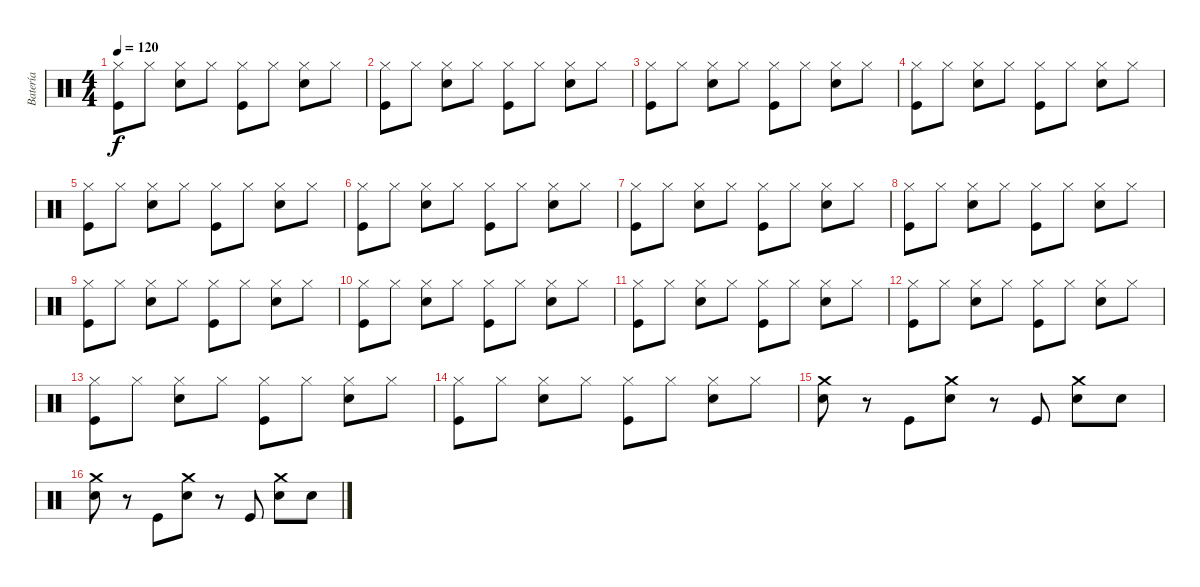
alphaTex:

\track ("Batería" "Batería") {instrument percussion}
\staff {score}
\articulation defaults
\ts (4 4)
\tempo 120
\clef neutral
\ks c
("Hi-Hat (closed)" "Kick (hit)").8{dy f} "Hi-Hat (closed)".8 ("Hi-Hat (closed)" "Snare (hit) 2").8 "Hi-Hat (closed)".8 ("Hi-Hat (closed)" "Kick (hit)").8 "Hi-Hat (closed)".8 ("Hi-Hat (closed)" "Snare (hit) 2").8 "Hi-Hat (closed)".8 |
("Hi-Hat (closed)" "Kick (hit)").8 "Hi-Hat (closed)".8 ("Hi-Hat (closed)" "Snare (hit) 2").8 "Hi-Hat (closed)".8 ("Hi-Hat (closed)" "Kick (hit)").8 "Hi-Hat (closed)".8 ("Hi-Hat (closed)" "Snare (hit) 2").8 "Hi-Hat (closed)".8 |
("Hi-Hat (closed)" "Kick (hit)").8 "Hi-Hat (closed)".8 ("Hi-Hat (closed)" "Snare (hit) 2").8 "Hi-Hat (closed)".8 ("Hi-Hat (closed)" "Kick (hit)").8 "Hi-Hat (closed)".8 ("Hi-Hat (closed)" "Snare (hit) 2").8 "Hi-Hat (closed)".8 |
("Hi-Hat (closed)" "Kick (hit)").8 "Hi-Hat (closed)".8 ("Hi-Hat (closed)" "Snare (hit) 2").8 "Hi-Hat (closed)".8 ("Hi-Hat (closed)" "Kick (hit)").8 "Hi-Hat (closed)".8 ("Hi-Hat (closed)" "Snare (hit) 2").8 "Hi-Hat (closed)".8 |
("Hi-Hat (closed)" "Kick (hit)").8 "Hi-Hat (closed)".8 ("Hi-Hat (closed)" "Snare (hit) 2").8 "Hi-Hat (closed)".8 ("Hi-Hat (closed)" "Kick (hit)").8 "Hi-Hat (closed)".8 ("Hi-Hat (closed)" "Snare (hit) 2").8 "Hi-Hat (closed)".8 |
("Hi-Hat (closed)" "Kick (hit)").8 "Hi-Hat (closed)".8 ("Hi-Hat (closed)" "Snare (hit) 2").8 "Hi-Hat (closed)".8 ("Hi-Hat (closed)" "Kick (hit)").8 "Hi-Hat (closed)".8 ("Hi-Hat (closed)" "Snare (hit) 2").8 "Hi-Hat (closed)".8 |
("Hi-Hat (closed)" "Kick (hit)").8 "Hi-Hat (closed)".8 ("Hi-Hat (closed)" "Snare (hit) 2").8 "Hi-Hat (closed)".8 ("Hi-Hat (closed)" "Kick (hit)").8 "Hi-Hat (closed)".8 ("Hi-Hat (closed)" "Snare (hit) 2").8 "Hi-Hat (closed)".8 |
("Hi-Hat (closed)" "Kick (hit)").8 "Hi-Hat (closed)".8 ("Hi-Hat (closed)" "Snare (hit) 2").8 "Hi-Hat (closed)".8 ("Hi-Hat (closed)" "Kick (hit)").8 "Hi-Hat (closed)".8 ("Hi-Hat (closed)" "Snare (hit) 2").8 "Hi-Hat (closed)".8 |
("Hi-Hat (closed)" "Kick (hit)").8 "Hi-Hat (closed)".8 ("Hi-Hat (closed)" "Snare (hit) 2").8 "Hi-Hat (closed)".8 ("Hi-Hat (closed)" "Kick (hit)").8 "Hi-Hat (closed)".8 ("Hi-Hat (closed)" "Snare (hit) 2").8 "Hi-Hat (closed)".8 |
("Hi-Hat (closed)" "Kick (hit)").8 "Hi-Hat (closed)".8 ("Hi-Hat (closed)" "Snare (hit) 2").8 "Hi-Hat (closed)".8 ("Hi-Hat (closed)" "Kick (hit)").8 "Hi-Hat (closed)".8 ("Hi-Hat (closed)" "Snare (hit) 2").8 "Hi-Hat (closed)".8 |
("Hi-Hat (closed)" "Kick (hit)").8 "Hi-Hat (closed)".8 ("Hi-Hat (closed)" "Snare (hit) 2").8 "Hi-Hat (closed)".8 ("Hi-Hat (closed)" "Kick (hit)").8 "Hi-Hat (closed)".8 ("Hi-Hat (closed)" "Snare (hit) 2").8 "Hi-Hat (closed)".8 |
("Hi-Hat (closed)" "Kick (hit)").8 "Hi-Hat (closed)".8 ("Hi-Hat (closed)" "Snare (hit) 2").8 "Hi-Hat (closed)".8 ("Hi-Hat (closed)" "Kick (hit)").8 "Hi-Hat (closed)".8 ("Hi-Hat (closed)" "Snare (hit) 2").8 "Hi-Hat (closed)".8 |
("Hi-Hat (closed)" "Kick (hit)").8 "Hi-Hat (closed)".8 ("Hi-Hat (closed)" "Snare (hit) 2").8 "Hi-Hat (closed)".8 ("Hi-Hat (closed)" "Kick (hit)").8 "Hi-Hat (closed)".8 ("Hi-Hat (closed)" "Snare (hit) 2").8 "Hi-Hat (closed)".8 |
("Hi-Hat (closed)" "Kick (hit)").8 "Hi-Hat (closed)".8 ("Hi-Hat (closed)" "Snare (hit) 2").8 "Hi-Hat (closed)".8 ("Hi-Hat (closed)" "Kick (hit)").8 "Hi-Hat (closed)".8 ("Hi-Hat (closed)" "Snare (hit) 2").8 "Hi-Hat (closed)".8 |
("Crash medium (hit)" "Snare (hit) 2").8 r.8 "Kick (hit)".8 ("Crash medium (hit)" "Snare (hit) 2").8 r.8 "Kick (hit)".8 ("Crash medium (hit)" "Snare (hit) 2").8 "Snare (hit) 2".8 |
("Crash medium (hit)" "Snare (hit) 2").8 r.8 "Kick (hit)".8 ("Crash medium (hit)" "Snare (hit) 2").8 r.8 "Kick (hit)".8 ("Crash medium (hit)" "Snare (hit) 2").8 "Snare (hit) 2".8
